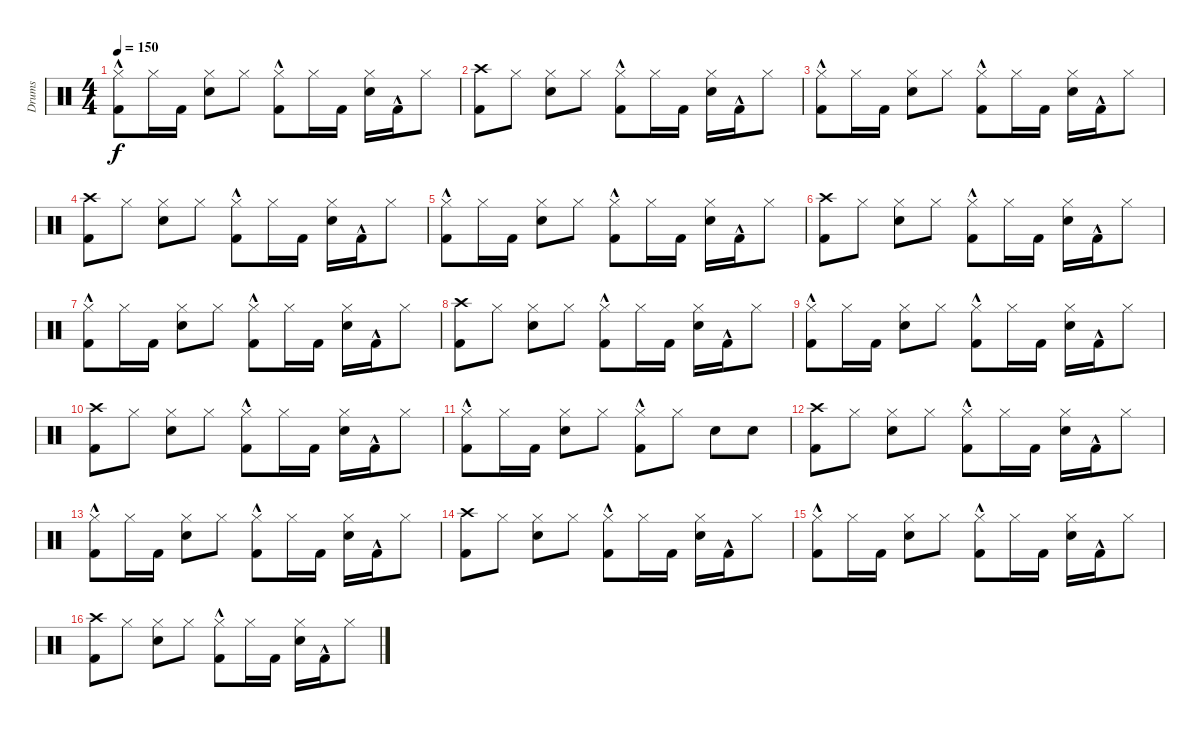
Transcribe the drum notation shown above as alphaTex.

\track ("Drums" "Drums") {instrument percussion}
\staff {score}
\articulation defaults
\ts (4 4)
\tempo 150
\clef neutral
\ks c
("Hi-Hat (closed)" "Kick (hit) 2"{hac}).8{dy f} "Hi-Hat (closed)".16 "Kick (hit) 2".16 ("Hi-Hat (closed)" "Electric Snare (hit)").8 "Hi-Hat (closed)".8 ("Hi-Hat (closed)" "Kick (hit) 2"{hac}).8 "Hi-Hat (closed)".16 "Kick (hit) 2".16 ("Hi-Hat (closed)" "Electric Snare (hit)").16 "Kick (hit) 2"{hac}.16 "Hi-Hat (closed)".8 |
("Crash high (hit)" "Kick (hit) 2").8 "Hi-Hat (closed)".8 ("Hi-Hat (closed)" "Electric Snare (hit)").8 "Hi-Hat (closed)".8 ("Hi-Hat (closed)" "Kick (hit) 2"{hac}).8 "Hi-Hat (closed)".16 "Kick (hit) 2".16 ("Hi-Hat (closed)" "Electric Snare (hit)").16 "Kick (hit) 2"{hac}.16 "Hi-Hat (closed)".8 |
("Hi-Hat (closed)" "Kick (hit) 2"{hac}).8 "Hi-Hat (closed)".16 "Kick (hit) 2".16 ("Hi-Hat (closed)" "Electric Snare (hit)").8 "Hi-Hat (closed)".8 ("Hi-Hat (closed)" "Kick (hit) 2"{hac}).8 "Hi-Hat (closed)".16 "Kick (hit) 2".16 ("Hi-Hat (closed)" "Electric Snare (hit)").16 "Kick (hit) 2"{hac}.16 "Hi-Hat (closed)".8 |
("Crash high (hit)" "Kick (hit) 2").8 "Hi-Hat (closed)".8 ("Hi-Hat (closed)" "Electric Snare (hit)").8 "Hi-Hat (closed)".8 ("Hi-Hat (closed)" "Kick (hit) 2"{hac}).8 "Hi-Hat (closed)".16 "Kick (hit) 2".16 ("Hi-Hat (closed)" "Electric Snare (hit)").16 "Kick (hit) 2"{hac}.16 "Hi-Hat (closed)".8 |
("Hi-Hat (closed)" "Kick (hit) 2"{hac}).8 "Hi-Hat (closed)".16 "Kick (hit) 2".16 ("Hi-Hat (closed)" "Electric Snare (hit)").8 "Hi-Hat (closed)".8 ("Hi-Hat (closed)" "Kick (hit) 2"{hac}).8 "Hi-Hat (closed)".16 "Kick (hit) 2".16 ("Hi-Hat (closed)" "Electric Snare (hit)").16 "Kick (hit) 2"{hac}.16 "Hi-Hat (closed)".8 |
("Crash high (hit)" "Kick (hit) 2").8 "Hi-Hat (closed)".8 ("Hi-Hat (closed)" "Electric Snare (hit)").8 "Hi-Hat (closed)".8 ("Hi-Hat (closed)" "Kick (hit) 2"{hac}).8 "Hi-Hat (closed)".16 "Kick (hit) 2".16 ("Hi-Hat (closed)" "Electric Snare (hit)").16 "Kick (hit) 2"{hac}.16 "Hi-Hat (closed)".8 |
("Hi-Hat (closed)" "Kick (hit) 2"{hac}).8 "Hi-Hat (closed)".16 "Kick (hit) 2".16 ("Hi-Hat (closed)" "Electric Snare (hit)").8 "Hi-Hat (closed)".8 ("Hi-Hat (closed)" "Kick (hit) 2"{hac}).8 "Hi-Hat (closed)".16 "Kick (hit) 2".16 ("Hi-Hat (closed)" "Electric Snare (hit)").16 "Kick (hit) 2"{hac}.16 "Hi-Hat (closed)".8 |
("Crash high (hit)" "Kick (hit) 2").8 "Hi-Hat (closed)".8 ("Hi-Hat (closed)" "Electric Snare (hit)").8 "Hi-Hat (closed)".8 ("Hi-Hat (closed)" "Kick (hit) 2"{hac}).8 "Hi-Hat (closed)".16 "Kick (hit) 2".16 ("Hi-Hat (closed)" "Electric Snare (hit)").16 "Kick (hit) 2"{hac}.16 "Hi-Hat (closed)".8 |
("Hi-Hat (closed)" "Kick (hit) 2"{hac}).8 "Hi-Hat (closed)".16 "Kick (hit) 2".16 ("Hi-Hat (closed)" "Electric Snare (hit)").8 "Hi-Hat (closed)".8 ("Hi-Hat (closed)" "Kick (hit) 2"{hac}).8 "Hi-Hat (closed)".16 "Kick (hit) 2".16 ("Hi-Hat (closed)" "Electric Snare (hit)").16 "Kick (hit) 2"{hac}.16 "Hi-Hat (closed)".8 |
("Crash high (hit)" "Kick (hit) 2").8 "Hi-Hat (closed)".8 ("Hi-Hat (closed)" "Electric Snare (hit)").8 "Hi-Hat (closed)".8 ("Hi-Hat (closed)" "Kick (hit) 2"{hac}).8 "Hi-Hat (closed)".16 "Kick (hit) 2".16 ("Hi-Hat (closed)" "Electric Snare (hit)").16 "Kick (hit) 2"{hac}.16 "Hi-Hat (closed)".8 |
("Hi-Hat (closed)" "Kick (hit) 2"{hac}).8 "Hi-Hat (closed)".16 "Kick (hit) 2".16 ("Hi-Hat (closed)" "Electric Snare (hit)").8 "Hi-Hat (closed)".8 ("Hi-Hat (closed)" "Kick (hit) 2"{hac}).8 "Hi-Hat (closed)".8 "Electric Snare (hit)".8 "Electric Snare (hit)".8 |
("Crash high (hit)" "Kick (hit) 2").8 "Hi-Hat (closed)".8 ("Hi-Hat (closed)" "Electric Snare (hit)").8 "Hi-Hat (closed)".8 ("Hi-Hat (closed)" "Kick (hit) 2"{hac}).8 "Hi-Hat (closed)".16 "Kick (hit) 2".16 ("Hi-Hat (closed)" "Electric Snare (hit)").16 "Kick (hit) 2"{hac}.16 "Hi-Hat (closed)".8 |
("Hi-Hat (closed)" "Kick (hit) 2"{hac}).8 "Hi-Hat (closed)".16 "Kick (hit) 2".16 ("Hi-Hat (closed)" "Electric Snare (hit)").8 "Hi-Hat (closed)".8 ("Hi-Hat (closed)" "Kick (hit) 2"{hac}).8 "Hi-Hat (closed)".16 "Kick (hit) 2".16 ("Hi-Hat (closed)" "Electric Snare (hit)").16 "Kick (hit) 2"{hac}.16 "Hi-Hat (closed)".8 |
("Crash high (hit)" "Kick (hit) 2").8 "Hi-Hat (closed)".8 ("Hi-Hat (closed)" "Electric Snare (hit)").8 "Hi-Hat (closed)".8 ("Hi-Hat (closed)" "Kick (hit) 2"{hac}).8 "Hi-Hat (closed)".16 "Kick (hit) 2".16 ("Hi-Hat (closed)" "Electric Snare (hit)").16 "Kick (hit) 2"{hac}.16 "Hi-Hat (closed)".8 |
("Hi-Hat (closed)" "Kick (hit) 2"{hac}).8 "Hi-Hat (closed)".16 "Kick (hit) 2".16 ("Hi-Hat (closed)" "Electric Snare (hit)").8 "Hi-Hat (closed)".8 ("Hi-Hat (closed)" "Kick (hit) 2"{hac}).8 "Hi-Hat (closed)".16 "Kick (hit) 2".16 ("Hi-Hat (closed)" "Electric Snare (hit)").16 "Kick (hit) 2"{hac}.16 "Hi-Hat (closed)".8 |
("Crash high (hit)" "Kick (hit) 2").8 "Hi-Hat (closed)".8 ("Hi-Hat (closed)" "Electric Snare (hit)").8 "Hi-Hat (closed)".8 ("Hi-Hat (closed)" "Kick (hit) 2"{hac}).8 "Hi-Hat (closed)".16 "Kick (hit) 2".16 ("Hi-Hat (closed)" "Electric Snare (hit)").16 "Kick (hit) 2"{hac}.16 "Hi-Hat (closed)".8
